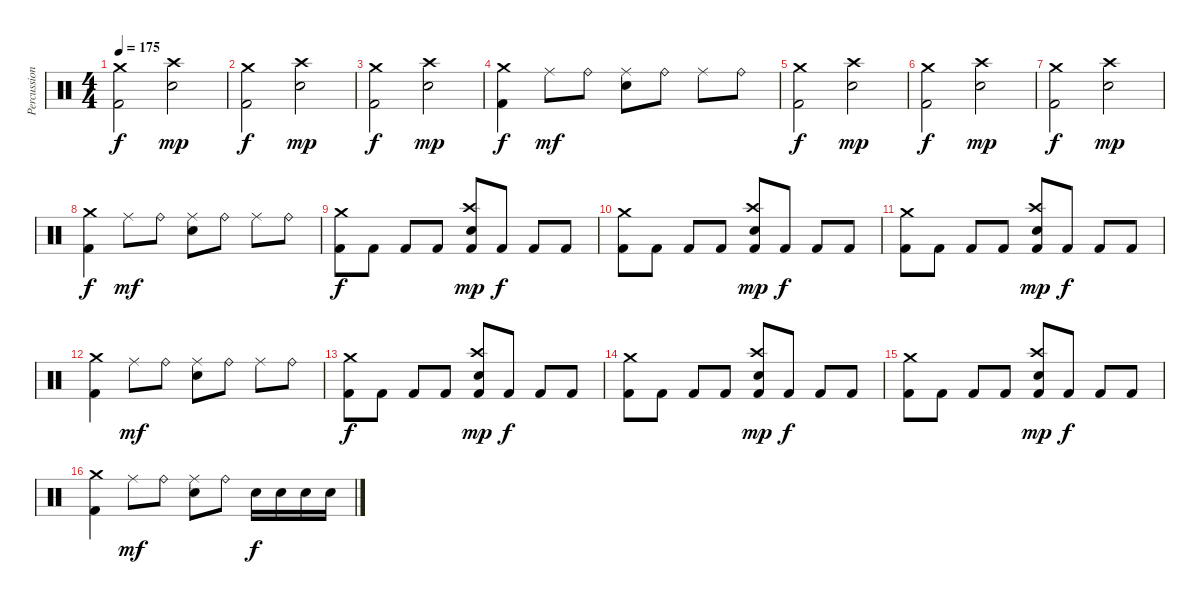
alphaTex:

\track ("Percussion" "Percussion") {instrument percussion}
\staff {score}
\articulation defaults
\ts (4 4)
\tempo 175
\clef neutral
\ks c
("Crash medium (hit)" "Kick (hit) 2").2{dy f} ("Crash high (hit)" "Electric Snare (hit)").2{dy mp} |
("Crash medium (hit)" "Kick (hit) 2").2{dy f} ("Crash high (hit)" "Electric Snare (hit)").2{dy mp} |
("Crash medium (hit)" "Kick (hit) 2").2{dy f} ("Crash high (hit)" "Electric Snare (hit)").2{dy mp} |
("Crash medium (hit)" "Kick (hit) 2").4{dy f} "Ride (middle)".8{dy mf} "Ride (bell)".8 ("Ride (middle)" "Electric Snare (hit)").8 "Ride (bell)".8 "Ride (middle)".8 "Ride (bell)".8 |
("Crash medium (hit)" "Kick (hit) 2").2{dy f} ("Crash high (hit)" "Electric Snare (hit)").2{dy mp} |
("Crash medium (hit)" "Kick (hit) 2").2{dy f} ("Crash high (hit)" "Electric Snare (hit)").2{dy mp} |
("Crash medium (hit)" "Kick (hit) 2").2{dy f} ("Crash high (hit)" "Electric Snare (hit)").2{dy mp} |
("Crash medium (hit)" "Kick (hit) 2").4{dy f} "Ride (middle)".8{dy mf} "Ride (bell)".8 ("Ride (middle)" "Electric Snare (hit)").8 "Ride (bell)".8 "Ride (middle)".8 "Ride (bell)".8 |
("Crash medium (hit)" "Kick (hit) 2").8{dy f} "Kick (hit) 2".8 "Kick (hit) 2".8 "Kick (hit) 2".8 ("Crash high (hit)" "Electric Snare (hit)" "Kick (hit) 2").8{dy mp} "Kick (hit) 2".8{dy f} "Kick (hit) 2".8 "Kick (hit) 2".8 |
("Crash medium (hit)" "Kick (hit) 2").8 "Kick (hit) 2".8 "Kick (hit) 2".8 "Kick (hit) 2".8 ("Crash high (hit)" "Electric Snare (hit)" "Kick (hit) 2").8{dy mp} "Kick (hit) 2".8{dy f} "Kick (hit) 2".8 "Kick (hit) 2".8 |
("Crash medium (hit)" "Kick (hit) 2").8 "Kick (hit) 2".8 "Kick (hit) 2".8 "Kick (hit) 2".8 ("Crash high (hit)" "Electric Snare (hit)" "Kick (hit) 2").8{dy mp} "Kick (hit) 2".8{dy f} "Kick (hit) 2".8 "Kick (hit) 2".8 |
("Crash medium (hit)" "Kick (hit) 2").4 "Ride (middle)".8{dy mf} "Ride (bell)".8 ("Ride (middle)" "Electric Snare (hit)").8 "Ride (bell)".8 "Ride (middle)".8 "Ride (bell)".8 |
("Crash medium (hit)" "Kick (hit) 2").8{dy f} "Kick (hit) 2".8 "Kick (hit) 2".8 "Kick (hit) 2".8 ("Crash high (hit)" "Electric Snare (hit)" "Kick (hit) 2").8{dy mp} "Kick (hit) 2".8{dy f} "Kick (hit) 2".8 "Kick (hit) 2".8 |
("Crash medium (hit)" "Kick (hit) 2").8 "Kick (hit) 2".8 "Kick (hit) 2".8 "Kick (hit) 2".8 ("Crash high (hit)" "Electric Snare (hit)" "Kick (hit) 2").8{dy mp} "Kick (hit) 2".8{dy f} "Kick (hit) 2".8 "Kick (hit) 2".8 |
("Crash medium (hit)" "Kick (hit) 2").8 "Kick (hit) 2".8 "Kick (hit) 2".8 "Kick (hit) 2".8 ("Crash high (hit)" "Electric Snare (hit)" "Kick (hit) 2").8{dy mp} "Kick (hit) 2".8{dy f} "Kick (hit) 2".8 "Kick (hit) 2".8 |
("Crash medium (hit)" "Kick (hit) 2").4 "Ride (middle)".8{dy mf} "Ride (bell)".8 ("Ride (middle)" "Electric Snare (hit)").8 "Ride (bell)".8 "Electric Snare (hit)".16{dy f} "Electric Snare (hit)".16 "Electric Snare (hit)".16 "Electric Snare (hit)".16
